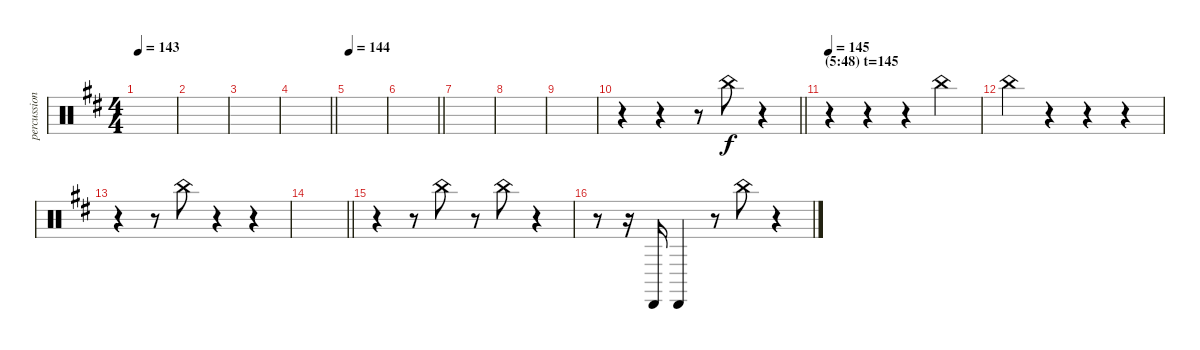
\track ("percussion" "percussion") {instrument percussion}
\staff {score}
\articulation defaults
\ts (4 4)
\tempo 143
\clef neutral
\ks d
|
|
|
\barLineRight lightlight
|
\tempo 144
|
\barLineRight lightlight
|
|
|
|
\barLineRight lightlight
r.4 r.4 r.8 "China (hit)".8{dy f} r.4 |
\section ("" "(5:48) t=145")
\tempo 145
r.4 r.4 r.4 "China (hit)".4 |
"China (hit)".4 r.4 r.4 r.4 |
r.4 r.8 "China (hit)".8 r.4 r.4 |
\barLineRight lightlight
|
r.4 r.8 "China (hit)".8 r.8 "China (hit)".8 r.4 |
r.8 r.16 "Cabasa (hit)".16 "Cabasa (hit)".4 r.8 "China (hit)".8 r.4
